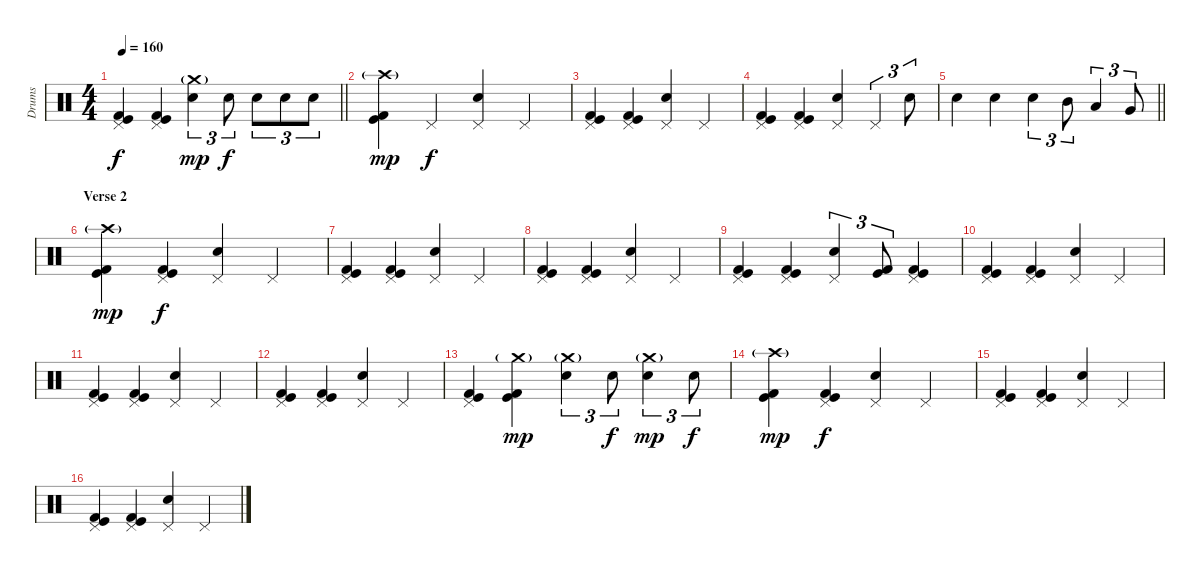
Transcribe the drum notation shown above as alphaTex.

\track ("Drums" "Drums") {instrument percussion}
\staff {score}
\articulation defaults
\ts (4 4)
\tempo 160
\clef neutral
\barLineRight lightlight
\ks c
("Pedal Hi-Hat (hit)" "Kick (hit)" "Kick (hit) 2").4{dy f} ("Pedal Hi-Hat (hit)" "Kick (hit)" "Kick (hit) 2").4 ("Crash medium (hit)"{g} "Electric Snare (hit)").4{tu (3 2) dy mp} "Electric Snare (hit)".8{tu (3 2) dy f} "Electric Snare (hit)".8{tu (3 2)} "Electric Snare (hit)".8{tu (3 2)} "Electric Snare (hit)".8{tu (3 2)} |
\section ("" "")
("Crash high (hit)"{g} "Kick (hit)" "Kick (hit) 2").4{dy mp} "Pedal Hi-Hat (hit)".4{dy f} ("Pedal Hi-Hat (hit)" "Electric Snare (hit)").4 "Pedal Hi-Hat (hit)".4 |
("Pedal Hi-Hat (hit)" "Kick (hit)" "Kick (hit) 2").4 ("Pedal Hi-Hat (hit)" "Kick (hit)" "Kick (hit) 2").4 ("Pedal Hi-Hat (hit)" "Electric Snare (hit)").4 "Pedal Hi-Hat (hit)".4 |
("Pedal Hi-Hat (hit)" "Kick (hit)" "Kick (hit) 2").4 ("Pedal Hi-Hat (hit)" "Kick (hit)" "Kick (hit) 2").4 ("Pedal Hi-Hat (hit)" "Electric Snare (hit)").4 "Pedal Hi-Hat (hit)".4{tu (3 2)} "Electric Snare (hit)".8{tu (3 2)} |
\barLineRight lightlight "Electric Snare (hit)".4 "Electric Snare (hit)".4 "Electric Snare (hit)".4{tu (3 2)} "Mid Tom (hit)".8{tu (3 2)} "Low Tom (hit)".4{tu (3 2)} "Very Low Tom (hit)".8{tu (3 2)}
|
\section ("" "Verse 2")
("Crash high (hit)"{g} "Kick (hit)" "Kick (hit) 2").4{dy mp} ("Pedal Hi-Hat (hit)" "Kick (hit)" "Kick (hit) 2").4{dy f} ("Pedal Hi-Hat (hit)" "Electric Snare (hit)").4 "Pedal Hi-Hat (hit)".4 |
("Pedal Hi-Hat (hit)" "Kick (hit)" "Kick (hit) 2").4 ("Pedal Hi-Hat (hit)" "Kick (hit)" "Kick (hit) 2").4 ("Pedal Hi-Hat (hit)" "Electric Snare (hit)").4 "Pedal Hi-Hat (hit)".4 |
("Pedal Hi-Hat (hit)" "Kick (hit)" "Kick (hit) 2").4 ("Pedal Hi-Hat (hit)" "Kick (hit)" "Kick (hit) 2").4 ("Pedal Hi-Hat (hit)" "Electric Snare (hit)").4 "Pedal Hi-Hat (hit)".4 |
("Pedal Hi-Hat (hit)" "Kick (hit)" "Kick (hit) 2").4 ("Pedal Hi-Hat (hit)" "Kick (hit)" "Kick (hit) 2").4 ("Pedal Hi-Hat (hit)" "Electric Snare (hit)").4{tu (3 2)} ("Kick (hit)" "Kick (hit) 2").8{tu (3 2)} ("Pedal Hi-Hat (hit)" "Kick (hit)" "Kick (hit) 2").4 |
("Pedal Hi-Hat (hit)" "Kick (hit)" "Kick (hit) 2").4 ("Pedal Hi-Hat (hit)" "Kick (hit)" "Kick (hit) 2").4 ("Pedal Hi-Hat (hit)" "Electric Snare (hit)").4 "Pedal Hi-Hat (hit)".4 |
("Pedal Hi-Hat (hit)" "Kick (hit)" "Kick (hit) 2").4 ("Pedal Hi-Hat (hit)" "Kick (hit)" "Kick (hit) 2").4 ("Pedal Hi-Hat (hit)" "Electric Snare (hit)").4 "Pedal Hi-Hat (hit)".4 |
("Pedal Hi-Hat (hit)" "Kick (hit)" "Kick (hit) 2").4 ("Pedal Hi-Hat (hit)" "Kick (hit)" "Kick (hit) 2").4 ("Pedal Hi-Hat (hit)" "Electric Snare (hit)").4 "Pedal Hi-Hat (hit)".4 |
("Pedal Hi-Hat (hit)" "Kick (hit)" "Kick (hit) 2").4 ("Crash medium (hit)"{g} "Kick (hit)" "Kick (hit) 2").4{dy mp} ("Crash medium (hit)"{g} "Electric Snare (hit)").4{tu (3 2)} "Electric Snare (hit)".8{tu (3 2) dy f} ("Crash medium (hit)"{g} "Electric Snare (hit)").4{tu (3 2) dy mp} "Electric Snare (hit)".8{tu (3 2) dy f} |
("Crash high (hit)"{g} "Kick (hit)" "Kick (hit) 2").4{dy mp} ("Pedal Hi-Hat (hit)" "Kick (hit)" "Kick (hit) 2").4{dy f} ("Pedal Hi-Hat (hit)" "Electric Snare (hit)").4 "Pedal Hi-Hat (hit)".4 |
("Pedal Hi-Hat (hit)" "Kick (hit)" "Kick (hit) 2").4 ("Pedal Hi-Hat (hit)" "Kick (hit)" "Kick (hit) 2").4 ("Pedal Hi-Hat (hit)" "Electric Snare (hit)").4 "Pedal Hi-Hat (hit)".4 |
("Pedal Hi-Hat (hit)" "Kick (hit)" "Kick (hit) 2").4 ("Pedal Hi-Hat (hit)" "Kick (hit)" "Kick (hit) 2").4 ("Pedal Hi-Hat (hit)" "Electric Snare (hit)").4 "Pedal Hi-Hat (hit)".4
